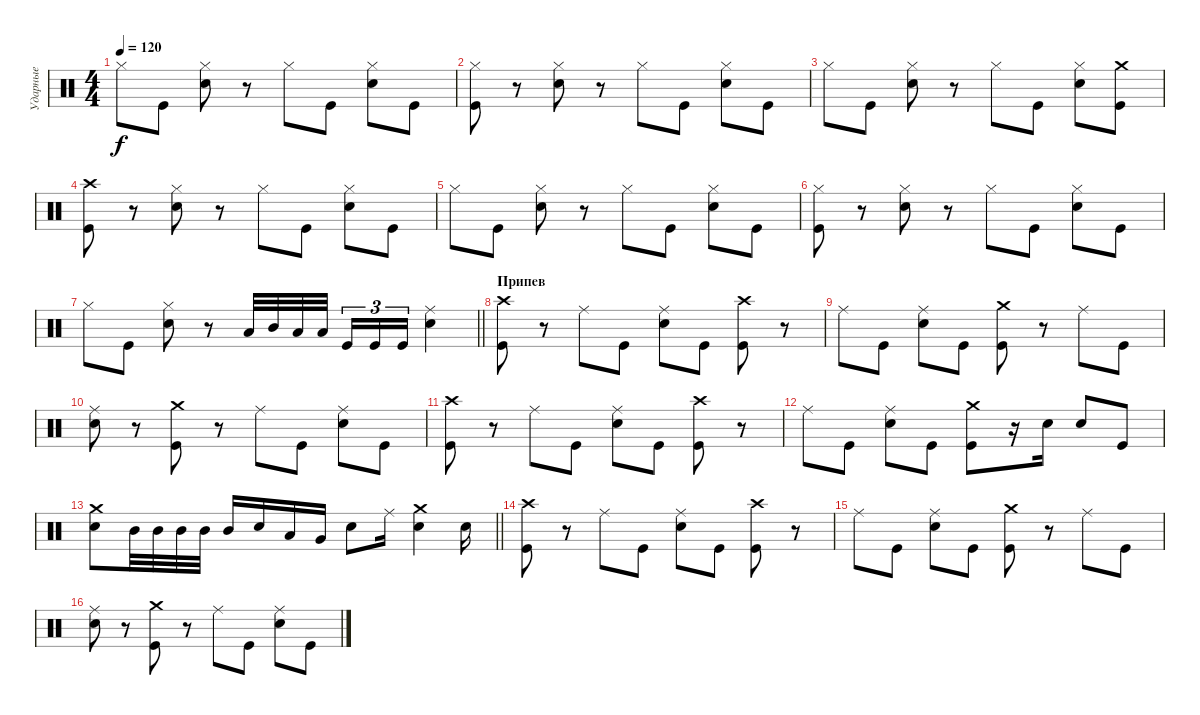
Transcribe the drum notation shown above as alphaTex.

\track ("Ударные" "Ударные") {instrument percussion}
\staff {score}
\articulation defaults
\ts (4 4)
\tempo 120
\clef neutral
\ks c "Hi-Hat (closed)".8{dy f} "Kick (hit)".8
("Hi-Hat (closed)" "Snare (hit) 2").8 r.8 "Hi-Hat (closed)".8 "Kick (hit)".8 ("Hi-Hat (closed)" "Snare (hit) 2").8 "Kick (hit)".8 |
("Hi-Hat (closed)" "Kick (hit)").8 r.8 ("Hi-Hat (closed)" "Snare (hit) 2").8 r.8 "Hi-Hat (closed)".8 "Kick (hit)".8 ("Hi-Hat (closed)" "Snare (hit) 2").8 "Kick (hit)".8 |
"Hi-Hat (closed)".8 "Kick (hit)".8 ("Hi-Hat (closed)" "Snare (hit) 2").8 r.8 "Hi-Hat (closed)".8 "Kick (hit)".8 ("Hi-Hat (closed)" "Snare (hit) 2").8 ("Crash medium (hit)" "Kick (hit)").8 |
("Crash high (hit)" "Kick (hit)").8 r.8 ("Hi-Hat (closed)" "Snare (hit) 2").8 r.8 "Hi-Hat (closed)".8 "Kick (hit)".8 ("Hi-Hat (closed)" "Snare (hit) 2").8 "Kick (hit)".8 |
"Hi-Hat (closed)".8 "Kick (hit)".8 ("Hi-Hat (closed)" "Snare (hit) 2").8 r.8 "Hi-Hat (closed)".8 "Kick (hit)".8 ("Hi-Hat (closed)" "Snare (hit) 2").8 "Kick (hit)".8 |
("Hi-Hat (closed)" "Kick (hit)").8 r.8 ("Hi-Hat (closed)" "Snare (hit) 2").8 r.8 "Hi-Hat (closed)".8 "Kick (hit)".8 ("Hi-Hat (closed)" "Snare (hit) 2").8 "Kick (hit)".8 |
\barLineRight lightlight "Hi-Hat (closed)".8 "Kick (hit)".8
("Hi-Hat (closed)" "Snare (hit) 2").8 r.8 "Low Tom (hit)".32 "Mid Tom (hit)".32 "Low Tom (hit)".32 "Low Tom (hit)".32{beam splitsecondary} "Kick (hit)".16{tu (3 2)} "Kick (hit)".16{tu (3 2)} "Kick (hit)".16{tu (3 2)} ("Ride (middle)" "Snare (hit) 2").4 |
\section ("" "Припев")
("Crash high (hit)" "Kick (hit)").8 r.8 "Ride (middle)".8 "Kick (hit)".8 ("Ride (middle)" "Snare (hit) 2").8 "Kick (hit)".8 ("Crash high (hit)" "Kick (hit)").8 r.8 |
"Ride (middle)".8 "Kick (hit)".8 ("Ride (middle)" "Snare (hit) 2").8 "Kick (hit)".8 ("Crash medium (hit)" "Kick (hit)").8 r.8 "Ride (middle)".8 "Kick (hit)".8 |
("Ride (middle)" "Snare (hit) 2").8 r.8 ("Crash medium (hit)" "Kick (hit)").8 r.8 "Ride (middle)".8 "Kick (hit)".8 ("Ride (middle)" "Snare (hit) 2").8 "Kick (hit)".8 |
("Crash high (hit)" "Kick (hit)").8 r.8 "Ride (middle)".8 "Kick (hit)".8 ("Ride (middle)" "Snare (hit) 2").8 "Kick (hit)".8 ("Crash high (hit)" "Kick (hit)").8 r.8 |
"Ride (middle)".8 "Kick (hit)".8 ("Ride (middle)" "Snare (hit) 2").8 "Kick (hit)".8 ("Crash medium (hit)" "Kick (hit)").8 r.16 "Snare (hit) 2".16 "Snare (hit) 2".8 "Kick (hit)".8 |
\barLineRight lightlight
("Crash medium (hit)" "Snare (hit) 2").8 "Mid Tom (hit)".32 "Mid Tom (hit)".32 "Mid Tom (hit)".32 "Mid Tom (hit)".32 "Mid Tom (hit)".16 "Snare (hit) 2".16 "Low Tom (hit)".16 "Very Low Tom (hit)".16 "Snare (hit) 2".8 "Ride (middle)".16 ("Crash medium (hit)" "Snare (hit) 2").4 "Snare (hit) 2".16 |
("Crash high (hit)" "Kick (hit)").8 r.8 "Ride (middle)".8 "Kick (hit)".8 ("Ride (middle)" "Snare (hit) 2").8 "Kick (hit)".8 ("Crash high (hit)" "Kick (hit)").8 r.8 |
"Ride (middle)".8 "Kick (hit)".8 ("Ride (middle)" "Snare (hit) 2").8 "Kick (hit)".8 ("Crash medium (hit)" "Kick (hit)").8 r.8 "Ride (middle)".8 "Kick (hit)".8 |
("Ride (middle)" "Snare (hit) 2").8 r.8 ("Crash medium (hit)" "Kick (hit)").8 r.8 "Ride (middle)".8 "Kick (hit)".8 ("Ride (middle)" "Snare (hit) 2").8 "Kick (hit)".8
